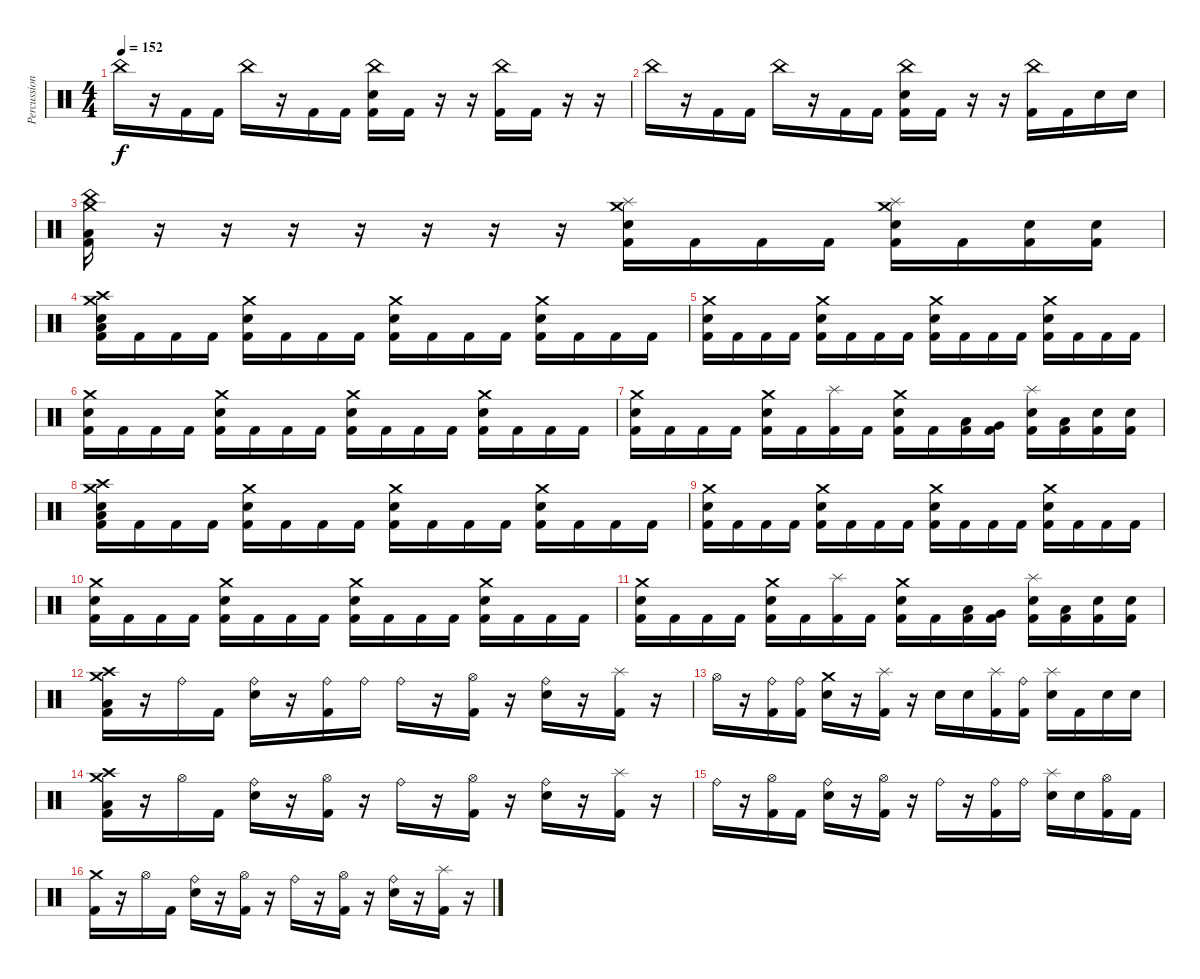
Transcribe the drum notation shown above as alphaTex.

\track ("Percussion" "Percussion") {instrument percussion}
\staff {score}
\articulation defaults
\ts (4 4)
\tempo 152
\clef neutral
\ks c "China (hit)".16{dy f}
r.16 "Kick (hit) 2".16 "Kick (hit) 2".16 "China (hit)".16 r.16 "Kick (hit) 2".16 "Kick (hit) 2".16 ("China (hit)" "Electric Snare (hit)" "Kick (hit) 2").16 "Kick (hit) 2".16 r.16 r.16 ("China (hit)" "Kick (hit) 2").16 "Kick (hit) 2".16 r.16 r.16 |
"China (hit)".16 r.16 "Kick (hit) 2".16 "Kick (hit) 2".16 "China (hit)".16 r.16 "Kick (hit) 2".16 "Kick (hit) 2".16 ("China (hit)" "Electric Snare (hit)" "Kick (hit) 2").16 "Kick (hit) 2".16 r.16 r.16 ("China (hit)" "Kick (hit) 2").16 "Kick (hit) 2".16 "Electric Snare (hit)".16 "Electric Snare (hit)".16 |
("Crash medium (hit)" "China (hit)" "Low Floor Tom (hit)" "Kick (hit) 2").16 r.16 r.16 r.16 r.16 r.16 r.16 r.16 ("Crash medium (hit)" "Splash (hit)" "Electric Snare (hit)" "Kick (hit) 2").16 "Kick (hit) 2".16 "Kick (hit) 2".16 "Kick (hit) 2".16 ("Crash medium (hit)" "Splash (hit)" "Electric Snare (hit)" "Kick (hit) 2").16 "Kick (hit) 2".16 ("Electric Snare (hit)" "Kick (hit) 2").16 ("Electric Snare (hit)" "Kick (hit) 2").16 |
("Crash high (hit)" "Crash medium (hit)" "Electric Snare (hit)" "Low Floor Tom (hit)" "Kick (hit) 2").16 "Kick (hit) 2".16 "Kick (hit) 2".16 "Kick (hit) 2".16 ("Crash medium (hit)" "Electric Snare (hit)" "Kick (hit) 2").16 "Kick (hit) 2".16 "Kick (hit) 2".16 "Kick (hit) 2".16 ("Crash medium (hit)" "Electric Snare (hit)" "Kick (hit) 2").16 "Kick (hit) 2".16 "Kick (hit) 2".16 "Kick (hit) 2".16 ("Crash medium (hit)" "Electric Snare (hit)" "Kick (hit) 2").16 "Kick (hit) 2".16 "Kick (hit) 2".16 "Kick (hit) 2".16 |
("Crash medium (hit)" "Electric Snare (hit)" "Kick (hit) 2").16 "Kick (hit) 2".16 "Kick (hit) 2".16 "Kick (hit) 2".16 ("Crash medium (hit)" "Electric Snare (hit)" "Kick (hit) 2").16 "Kick (hit) 2".16 "Kick (hit) 2".16 "Kick (hit) 2".16 ("Crash medium (hit)" "Electric Snare (hit)" "Kick (hit) 2").16 "Kick (hit) 2".16 "Kick (hit) 2".16 "Kick (hit) 2".16 ("Crash medium (hit)" "Electric Snare (hit)" "Kick (hit) 2").16 "Kick (hit) 2".16 "Kick (hit) 2".16 "Kick (hit) 2".16 |
("Crash medium (hit)" "Electric Snare (hit)" "Kick (hit) 2").16 "Kick (hit) 2".16 "Kick (hit) 2".16 "Kick (hit) 2".16 ("Crash medium (hit)" "Electric Snare (hit)" "Kick (hit) 2").16 "Kick (hit) 2".16 "Kick (hit) 2".16 "Kick (hit) 2".16 ("Crash medium (hit)" "Electric Snare (hit)" "Kick (hit) 2").16 "Kick (hit) 2".16 "Kick (hit) 2".16 "Kick (hit) 2".16 ("Crash medium (hit)" "Electric Snare (hit)" "Kick (hit) 2").16 "Kick (hit) 2".16 "Kick (hit) 2".16 "Kick (hit) 2".16 |
("Crash medium (hit)" "Electric Snare (hit)" "Kick (hit) 2").16 "Kick (hit) 2".16 "Kick (hit) 2".16 "Kick (hit) 2".16 ("Crash medium (hit)" "Electric Snare (hit)" "Kick (hit) 2").16 "Kick (hit) 2".16 ("Splash (hit)" "Kick (hit) 2").16 "Kick (hit) 2".16 ("Crash medium (hit)" "Electric Snare (hit)" "Kick (hit) 2").16 "Kick (hit) 2".16 ("Low Tom (hit)" "Kick (hit) 2").16 ("Very Low Tom (hit)" "Kick (hit) 2").16 ("Splash (hit)" "Electric Snare (hit)" "Kick (hit) 2").16 ("Low Tom (hit)" "Kick (hit) 2").16 ("Electric Snare (hit)" "Kick (hit) 2").16 ("Electric Snare (hit)" "Kick (hit) 2").16 |
("Crash high (hit)" "Crash medium (hit)" "Electric Snare (hit)" "Low Floor Tom (hit)" "Kick (hit) 2").16 "Kick (hit) 2".16 "Kick (hit) 2".16 "Kick (hit) 2".16 ("Crash medium (hit)" "Electric Snare (hit)" "Kick (hit) 2").16 "Kick (hit) 2".16 "Kick (hit) 2".16 "Kick (hit) 2".16 ("Crash medium (hit)" "Electric Snare (hit)" "Kick (hit) 2").16 "Kick (hit) 2".16 "Kick (hit) 2".16 "Kick (hit) 2".16 ("Crash medium (hit)" "Electric Snare (hit)" "Kick (hit) 2").16 "Kick (hit) 2".16 "Kick (hit) 2".16 "Kick (hit) 2".16 |
("Crash medium (hit)" "Electric Snare (hit)" "Kick (hit) 2").16 "Kick (hit) 2".16 "Kick (hit) 2".16 "Kick (hit) 2".16 ("Crash medium (hit)" "Electric Snare (hit)" "Kick (hit) 2").16 "Kick (hit) 2".16 "Kick (hit) 2".16 "Kick (hit) 2".16 ("Crash medium (hit)" "Electric Snare (hit)" "Kick (hit) 2").16 "Kick (hit) 2".16 "Kick (hit) 2".16 "Kick (hit) 2".16 ("Crash medium (hit)" "Electric Snare (hit)" "Kick (hit) 2").16 "Kick (hit) 2".16 "Kick (hit) 2".16 "Kick (hit) 2".16 |
("Crash medium (hit)" "Electric Snare (hit)" "Kick (hit) 2").16 "Kick (hit) 2".16 "Kick (hit) 2".16 "Kick (hit) 2".16 ("Crash medium (hit)" "Electric Snare (hit)" "Kick (hit) 2").16 "Kick (hit) 2".16 "Kick (hit) 2".16 "Kick (hit) 2".16 ("Crash medium (hit)" "Electric Snare (hit)" "Kick (hit) 2").16 "Kick (hit) 2".16 "Kick (hit) 2".16 "Kick (hit) 2".16 ("Crash medium (hit)" "Electric Snare (hit)" "Kick (hit) 2").16 "Kick (hit) 2".16 "Kick (hit) 2".16 "Kick (hit) 2".16 |
("Crash medium (hit)" "Electric Snare (hit)" "Kick (hit) 2").16 "Kick (hit) 2".16 "Kick (hit) 2".16 "Kick (hit) 2".16 ("Crash medium (hit)" "Electric Snare (hit)" "Kick (hit) 2").16 "Kick (hit) 2".16 ("Splash (hit)" "Kick (hit) 2").16 "Kick (hit) 2".16 ("Crash medium (hit)" "Electric Snare (hit)" "Kick (hit) 2").16 "Kick (hit) 2".16 ("Low Tom (hit)" "Kick (hit) 2").16 ("Very Low Tom (hit)" "Kick (hit) 2").16 ("Splash (hit)" "Electric Snare (hit)" "Kick (hit) 2").16 ("Low Tom (hit)" "Kick (hit) 2").16 ("Electric Snare (hit)" "Kick (hit) 2").16 ("Electric Snare (hit)" "Kick (hit) 2").16 |
("Crash high (hit)" "Crash medium (hit)" "Low Floor Tom (hit)" "Kick (hit) 2").16 r.16 "Ride (bell)".16 "Kick (hit) 2".16 ("Ride (bell)" "Electric Snare (hit)").16 r.16 ("Ride (bell)" "Kick (hit) 2").16 "Ride (bell)".16 "Ride (bell)".16 r.16 ("Hi-Hat (open)" "Kick (hit) 2").16 r.16 ("Ride (bell)" "Electric Snare (hit)").16 r.16 ("Splash (hit)" "Kick (hit) 2").16 r.16 |
"Hi-Hat (open)".16 r.16 ("Ride (bell)" "Kick (hit) 2").16 ("Ride (bell)" "Kick (hit) 2").16 ("Crash medium (hit)" "Electric Snare (hit)").16 r.16 ("Splash (hit)" "Kick (hit) 2").16 r.16 "Electric Snare (hit)".16 "Electric Snare (hit)".16 ("Splash (hit)" "Kick (hit) 2").16 ("Ride (bell)" "Kick (hit) 2").16 ("Splash (hit)" "Electric Snare (hit)").16 "Kick (hit) 2".16 "Electric Snare (hit)".16 "Electric Snare (hit)".16 |
("Crash high (hit)" "Crash medium (hit)" "Low Floor Tom (hit)" "Kick (hit) 2").16 r.16 "Hi-Hat (open)".16 "Kick (hit) 2".16 ("Ride (bell)" "Electric Snare (hit)").16 r.16 ("Hi-Hat (open)" "Kick (hit) 2").16 r.16 "Ride (bell)".16 r.16 ("Hi-Hat (open)" "Kick (hit) 2").16 r.16 ("Ride (bell)" "Electric Snare (hit)").16 r.16 ("Splash (hit)" "Kick (hit) 2").16 r.16 |
"Ride (bell)".16 r.16 ("Hi-Hat (open)" "Kick (hit) 2").16 "Kick (hit) 2".16 ("Ride (bell)" "Electric Snare (hit)").16 r.16 ("Hi-Hat (open)" "Kick (hit) 2").16 r.16 "Ride (bell)".16 r.16 ("Ride (bell)" "Kick (hit) 2").16 "Ride (bell)".16 ("Splash (hit)" "Electric Snare (hit)").16 "Electric Snare (hit)".16 ("Hi-Hat (open)" "Kick (hit) 2").16 "Kick (hit) 2".16 |
("Crash medium (hit)" "Kick (hit) 2").16 r.16 "Hi-Hat (open)".16 "Kick (hit) 2".16 ("Ride (bell)" "Electric Snare (hit)").16 r.16 ("Hi-Hat (open)" "Kick (hit) 2").16 r.16 "Ride (bell)".16 r.16 ("Hi-Hat (open)" "Kick (hit) 2").16 r.16 ("Ride (bell)" "Electric Snare (hit)").16 r.16 ("Splash (hit)" "Kick (hit) 2").16 r.16
